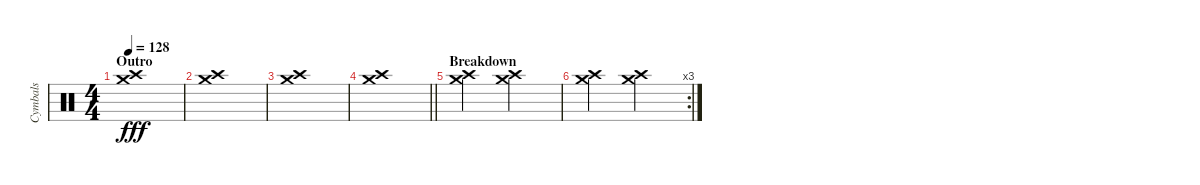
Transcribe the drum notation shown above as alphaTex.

\track ("Cymbals" "Cymbals") {instrument percussion}
\staff {score}
\articulation defaults
\ts (4 4)
\section ("" "Outro")
\tempo 128
\clef neutral
\ks c
("Crash high (hit)" "Crash medium (hit)").1{dy fff} |
("Crash high (hit)" "Crash medium (hit)").1 |
("Crash high (hit)" "Crash medium (hit)").1 |
\barLineRight lightlight
("Crash high (hit)" "Crash medium (hit)").1 |
\section ("" "Breakdown")
("Crash high (hit)" "Crash medium (hit)").2 ("Crash high (hit)" "Crash medium (hit)").2 |
\rc 3
("Crash high (hit)" "Crash medium (hit)").2 ("Crash high (hit)" "Crash medium (hit)").2
